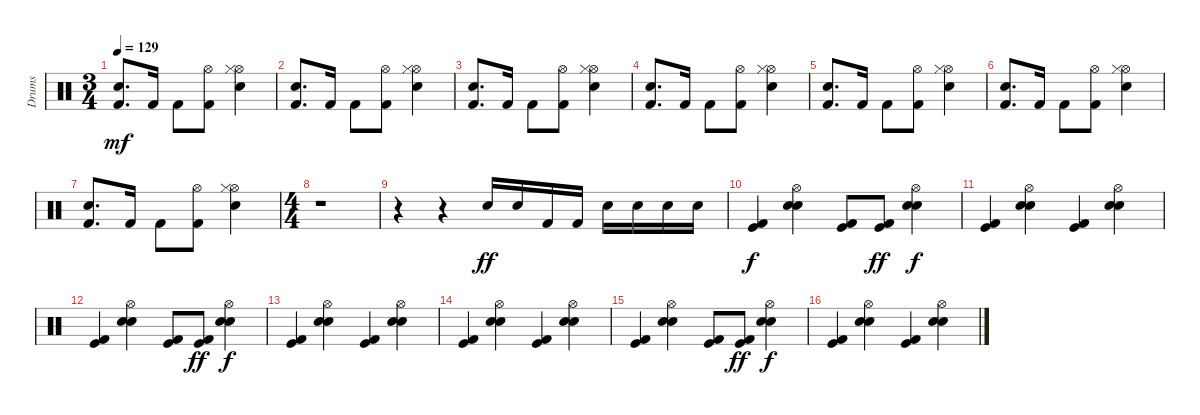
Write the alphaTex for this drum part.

\track ("Drums" "Drums") {instrument percussion}
\staff {score}
\articulation defaults
\ts (3 4)
\tempo 129
\clef neutral
\ks c
("Snare (hit) 2" "Kick (hit) 2").8{d dy mf} "Kick (hit) 2".16 "Kick (hit) 2".8 ("Hi-Hat (open)" "Kick (hit) 2").8 ("Electric Snare (hit)" "Hi-Hat (open)" "Hi-Hat (closed)").4 |
("Snare (hit) 2" "Kick (hit) 2").8{d} "Kick (hit) 2".16 "Kick (hit) 2".8 ("Hi-Hat (open)" "Kick (hit) 2").8 ("Electric Snare (hit)" "Hi-Hat (open)" "Hi-Hat (closed)").4 |
("Snare (hit) 2" "Kick (hit) 2").8{d} "Kick (hit) 2".16 "Kick (hit) 2".8 ("Hi-Hat (open)" "Kick (hit) 2").8 ("Electric Snare (hit)" "Hi-Hat (open)" "Hi-Hat (closed)").4 |
("Snare (hit) 2" "Kick (hit) 2").8{d} "Kick (hit) 2".16 "Kick (hit) 2".8 ("Hi-Hat (open)" "Kick (hit) 2").8 ("Electric Snare (hit)" "Hi-Hat (open)" "Hi-Hat (closed)").4 |
("Snare (hit) 2" "Kick (hit) 2").8{d} "Kick (hit) 2".16 "Kick (hit) 2".8 ("Hi-Hat (open)" "Kick (hit) 2").8 ("Electric Snare (hit)" "Hi-Hat (open)" "Hi-Hat (closed)").4 |
("Snare (hit) 2" "Kick (hit) 2").8{d} "Kick (hit) 2".16 "Kick (hit) 2".8 ("Hi-Hat (open)" "Kick (hit) 2").8 ("Electric Snare (hit)" "Hi-Hat (open)" "Hi-Hat (closed)").4 |
("Snare (hit) 2" "Kick (hit) 2").8{d} "Kick (hit) 2".16 "Kick (hit) 2".8 ("Hi-Hat (open)" "Kick (hit) 2").8 ("Electric Snare (hit)" "Hi-Hat (open)" "Hi-Hat (closed)").4 |
\ts (4 4)
r.1 |
r.4 r.4 "Snare (hit) 2".16{dy ff} "Snare (hit) 2".16 "Kick (hit) 2".16 "Kick (hit) 2".16 "Snare (hit) 2".16 "Snare (hit) 2".16 "Snare (hit) 2".16 "Snare (hit) 2".16 |
("Kick (hit)" "Kick (hit) 2").4{dy f} ("Electric Snare (hit)" "Hi-Hat (open)" "Snare (hit) 2").4 ("Kick (hit)" "Kick (hit) 2").8 ("Kick (hit) 2" "Kick (hit)").8{dy ff} ("Electric Snare (hit)" "Hi-Hat (open)" "Snare (hit) 2").4{dy f} |
("Kick (hit)" "Kick (hit) 2").4 ("Electric Snare (hit)" "Hi-Hat (open)" "Snare (hit) 2").4 ("Kick (hit)" "Kick (hit) 2").4 ("Electric Snare (hit)" "Hi-Hat (open)" "Snare (hit) 2").4 |
("Kick (hit)" "Kick (hit) 2").4 ("Electric Snare (hit)" "Hi-Hat (open)" "Snare (hit) 2").4 ("Kick (hit)" "Kick (hit) 2").8 ("Kick (hit) 2" "Kick (hit)").8{dy ff} ("Electric Snare (hit)" "Hi-Hat (open)" "Snare (hit) 2").4{dy f} |
("Kick (hit)" "Kick (hit) 2").4 ("Electric Snare (hit)" "Hi-Hat (open)" "Snare (hit) 2").4 ("Kick (hit)" "Kick (hit) 2").4 ("Electric Snare (hit)" "Hi-Hat (open)" "Snare (hit) 2").4 |
("Kick (hit)" "Kick (hit) 2").4 ("Electric Snare (hit)" "Hi-Hat (open)" "Snare (hit) 2").4 ("Kick (hit)" "Kick (hit) 2").4 ("Electric Snare (hit)" "Hi-Hat (open)" "Snare (hit) 2").4 |
("Kick (hit)" "Kick (hit) 2").4 ("Electric Snare (hit)" "Hi-Hat (open)" "Snare (hit) 2").4 ("Kick (hit)" "Kick (hit) 2").8 ("Kick (hit) 2" "Kick (hit)").8{dy ff} ("Electric Snare (hit)" "Hi-Hat (open)" "Snare (hit) 2").4{dy f} |
("Kick (hit)" "Kick (hit) 2").4 ("Electric Snare (hit)" "Hi-Hat (open)" "Snare (hit) 2").4 ("Kick (hit)" "Kick (hit) 2").4 ("Electric Snare (hit)" "Hi-Hat (open)" "Snare (hit) 2").4
